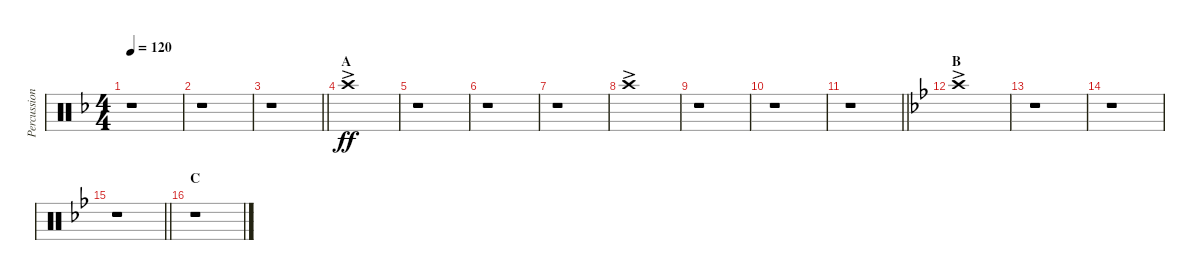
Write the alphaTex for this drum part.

\track ("Percussion" "Percussion") {instrument percussion}
\staff {score}
\articulation defaults
\ts (4 4)
\tempo 120
\clef neutral
\ks f
r.1{dy ff} |
r.1 |
\barLineRight lightlight
r.1 |
\section ("" "A")
"Crash high (hit)"{ac}.1 |
r.1 |
r.1 |
r.1 |
"Crash high (hit)"{ac}.1 |
r.1 |
r.1 |
\barLineRight lightlight
r.1 |
\section ("" "B")
\ks bb "Crash high (hit)"{ac}.1
|
r.1 |
r.1 |
\barLineRight lightlight
r.1 |
\section ("" "C")
r.1
